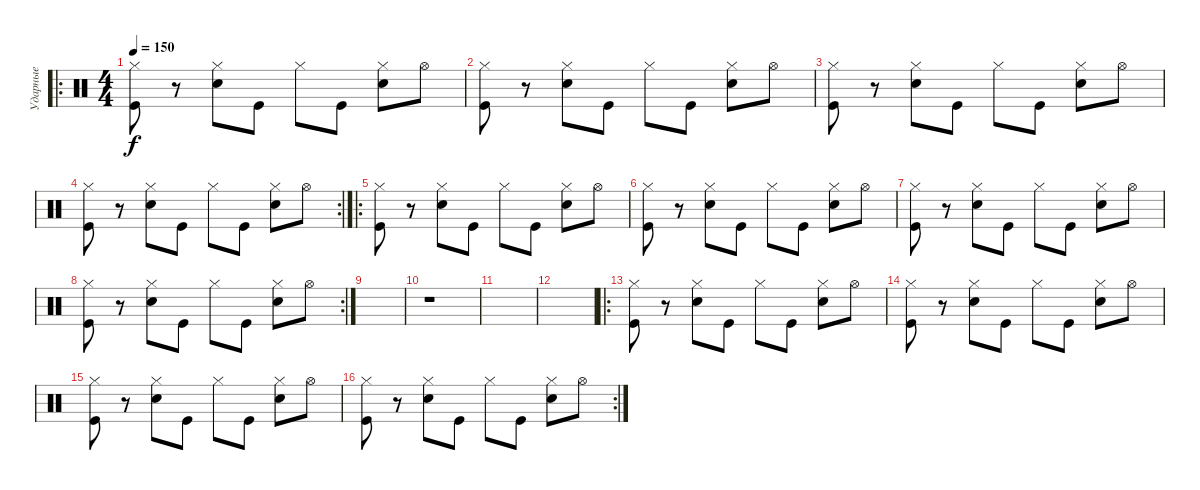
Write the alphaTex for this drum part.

\track ("Ударные" "Ударные") {instrument percussion}
\staff {score}
\articulation defaults
\ro
\ts (4 4)
\tempo 150
\clef neutral
\ks c
("Kick (hit)" "Hi-Hat (closed)").8{dy f} r.8 ("Hand Clap (hit)" "Hi-Hat (closed)").8 "Kick (hit)".8 "Hi-Hat (closed)".8 "Kick (hit)".8 ("Hand Clap (hit)" "Hi-Hat (closed)").8 "Hi-Hat (open)".8 |
("Kick (hit)" "Hi-Hat (closed)").8 r.8 ("Hand Clap (hit)" "Hi-Hat (closed)").8 "Kick (hit)".8 "Hi-Hat (closed)".8 "Kick (hit)".8 ("Hand Clap (hit)" "Hi-Hat (closed)").8 "Hi-Hat (open)".8 |
("Kick (hit)" "Hi-Hat (closed)").8 r.8 ("Hand Clap (hit)" "Hi-Hat (closed)").8 "Kick (hit)".8 "Hi-Hat (closed)".8 "Kick (hit)".8 ("Hand Clap (hit)" "Hi-Hat (closed)").8 "Hi-Hat (open)".8 |
\rc 2
("Kick (hit)" "Hi-Hat (closed)").8 r.8 ("Hand Clap (hit)" "Hi-Hat (closed)").8 "Kick (hit)".8 "Hi-Hat (closed)".8 "Kick (hit)".8 ("Hand Clap (hit)" "Hi-Hat (closed)").8 "Hi-Hat (open)".8 |
\ro
("Kick (hit)" "Hi-Hat (closed)").8 r.8 ("Hand Clap (hit)" "Hi-Hat (closed)").8 "Kick (hit)".8 "Hi-Hat (closed)".8 "Kick (hit)".8 ("Hand Clap (hit)" "Hi-Hat (closed)").8 "Hi-Hat (open)".8 |
("Kick (hit)" "Hi-Hat (closed)").8 r.8 ("Hand Clap (hit)" "Hi-Hat (closed)").8 "Kick (hit)".8 "Hi-Hat (closed)".8 "Kick (hit)".8 ("Hand Clap (hit)" "Hi-Hat (closed)").8 "Hi-Hat (open)".8 |
("Kick (hit)" "Hi-Hat (closed)").8 r.8 ("Hand Clap (hit)" "Hi-Hat (closed)").8 "Kick (hit)".8 "Hi-Hat (closed)".8 "Kick (hit)".8 ("Hand Clap (hit)" "Hi-Hat (closed)").8 "Hi-Hat (open)".8 |
\rc 2
("Kick (hit)" "Hi-Hat (closed)").8 r.8 ("Hand Clap (hit)" "Hi-Hat (closed)").8 "Kick (hit)".8 "Hi-Hat (closed)".8 "Kick (hit)".8 ("Hand Clap (hit)" "Hi-Hat (closed)").8 "Hi-Hat (open)".8 |
|
r.1 |
|
|
\ro
("Kick (hit)" "Hi-Hat (closed)").8 r.8 ("Hand Clap (hit)" "Hi-Hat (closed)").8 "Kick (hit)".8 "Hi-Hat (closed)".8 "Kick (hit)".8 ("Hand Clap (hit)" "Hi-Hat (closed)").8 "Hi-Hat (open)".8 |
("Kick (hit)" "Hi-Hat (closed)").8 r.8 ("Hand Clap (hit)" "Hi-Hat (closed)").8 "Kick (hit)".8 "Hi-Hat (closed)".8 "Kick (hit)".8 ("Hand Clap (hit)" "Hi-Hat (closed)").8 "Hi-Hat (open)".8 |
("Kick (hit)" "Hi-Hat (closed)").8 r.8 ("Hand Clap (hit)" "Hi-Hat (closed)").8 "Kick (hit)".8 "Hi-Hat (closed)".8 "Kick (hit)".8 ("Hand Clap (hit)" "Hi-Hat (closed)").8 "Hi-Hat (open)".8 |
\rc 2
("Kick (hit)" "Hi-Hat (closed)").8 r.8 ("Hand Clap (hit)" "Hi-Hat (closed)").8 "Kick (hit)".8 "Hi-Hat (closed)".8 "Kick (hit)".8 ("Hand Clap (hit)" "Hi-Hat (closed)").8 "Hi-Hat (open)".8
